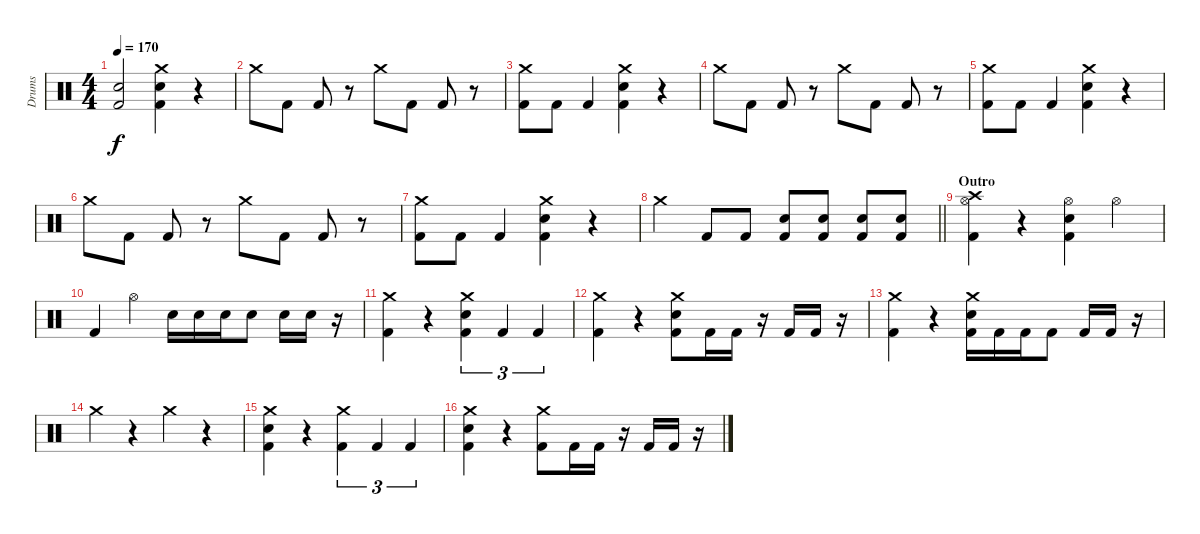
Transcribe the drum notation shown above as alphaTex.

\track ("Drums" "Drums") {instrument percussion}
\staff {score}
\articulation defaults
\ts (4 4)
\tempo 170
\clef neutral
\ks c
("Electric Snare (hit)" "Kick (hit) 2").2{dy f} ("Crash medium (hit)" "Electric Snare (hit)" "Kick (hit) 2").4 r.4 |
"Crash medium (hit)".8 "Kick (hit) 2".8 "Kick (hit) 2".8 r.8 "Crash medium (hit)".8 "Kick (hit) 2".8 "Kick (hit) 2".8 r.8 |
("Crash medium (hit)" "Kick (hit) 2").8 "Kick (hit) 2".8 "Kick (hit) 2".4 ("Crash medium (hit)" "Electric Snare (hit)" "Kick (hit) 2").4 r.4 |
"Crash medium (hit)".8 "Kick (hit) 2".8 "Kick (hit) 2".8 r.8 "Crash medium (hit)".8 "Kick (hit) 2".8 "Kick (hit) 2".8 r.8 |
("Crash medium (hit)" "Kick (hit) 2").8 "Kick (hit) 2".8 "Kick (hit) 2".4 ("Crash medium (hit)" "Electric Snare (hit)" "Kick (hit) 2").4 r.4 |
"Crash medium (hit)".8 "Kick (hit) 2".8 "Kick (hit) 2".8 r.8 "Crash medium (hit)".8 "Kick (hit) 2".8 "Kick (hit) 2".8 r.8 |
("Crash medium (hit)" "Kick (hit) 2").8 "Kick (hit) 2".8 "Kick (hit) 2".4 ("Crash medium (hit)" "Electric Snare (hit)" "Kick (hit) 2").4 r.4 |
\barLineRight lightlight "Crash medium (hit)".4 "Kick (hit) 2".8 "Kick (hit) 2".8
("Electric Snare (hit)" "Kick (hit) 2").8 ("Electric Snare (hit)" "Kick (hit) 2").8 ("Electric Snare (hit)" "Kick (hit) 2").8 ("Electric Snare (hit)" "Kick (hit) 2").8 |
\section ("" "Outro")
("Hi-Hat (open)" "Crash high (hit)" "Kick (hit) 2").4 r.4 ("Hi-Hat (open)" "Electric Snare (hit)" "Kick (hit) 2").4 "Hi-Hat (open)".4 |
"Kick (hit) 2".4 "Hi-Hat (open)".4 "Electric Snare (hit)".16 "Electric Snare (hit)".16 "Electric Snare (hit)".16 "Electric Snare (hit)".8 "Electric Snare (hit)".16 "Electric Snare (hit)".16 r.16 |
("Crash medium (hit)" "Kick (hit) 2").4 r.4 ("Crash medium (hit)" "Electric Snare (hit)" "Kick (hit) 2").4{tu (3 2)} "Kick (hit) 2".4{tu (3 2)} "Kick (hit) 2".4{tu (3 2)} |
("Crash medium (hit)" "Kick (hit) 2").4 r.4 ("Crash medium (hit)" "Electric Snare (hit)" "Kick (hit) 2").8 "Kick (hit) 2".16 "Kick (hit) 2".16 r.16 "Kick (hit) 2".16 "Kick (hit) 2".16 r.16 |
("Crash medium (hit)" "Kick (hit) 2").4 r.4 ("Crash medium (hit)" "Electric Snare (hit)" "Kick (hit) 2").16 "Kick (hit) 2".16 "Kick (hit) 2".16 "Kick (hit) 2".8 "Kick (hit) 2".16 "Kick (hit) 2".16 r.16 |
"Crash medium (hit)".4 r.4 "Crash medium (hit)".4 r.4 |
("Crash medium (hit)" "Electric Snare (hit)" "Kick (hit) 2").4 r.4 ("Crash medium (hit)" "Kick (hit) 2").4{tu (3 2)} "Kick (hit) 2".4{tu (3 2)} "Kick (hit) 2".4{tu (3 2)} |
("Crash medium (hit)" "Electric Snare (hit)" "Kick (hit) 2").4 r.4 ("Crash medium (hit)" "Kick (hit) 2").8 "Kick (hit) 2".16 "Kick (hit) 2".16 r.16 "Kick (hit) 2".16 "Kick (hit) 2".16 r.16
